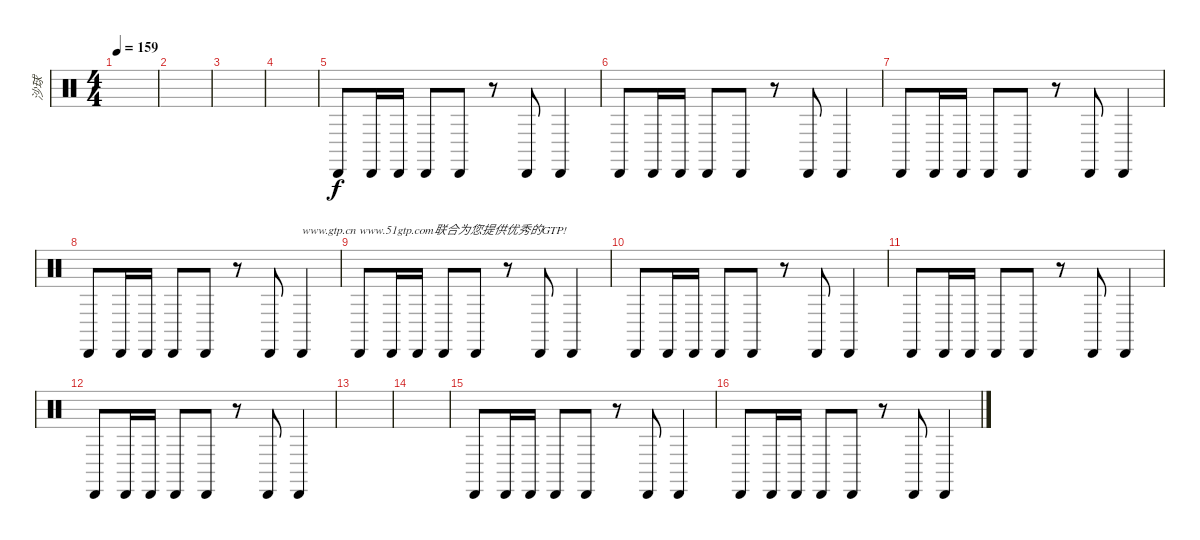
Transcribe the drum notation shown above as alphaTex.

\track ("沙球" "沙球") {instrument percussion}
\staff {score}
\articulation defaults
\ts (4 4)
\tempo 159
\clef neutral
\ks c
|
|
|
|
"Cabasa (hit)".8 "Cabasa (hit)".16 "Cabasa (hit)".16 "Cabasa (hit)".8 "Cabasa (hit)".8 r.8 "Cabasa (hit)".8 "Cabasa (hit)".4 |
"Cabasa (hit)".8 "Cabasa (hit)".16 "Cabasa (hit)".16 "Cabasa (hit)".8 "Cabasa (hit)".8 r.8 "Cabasa (hit)".8 "Cabasa (hit)".4 |
"Cabasa (hit)".8 "Cabasa (hit)".16 "Cabasa (hit)".16 "Cabasa (hit)".8 "Cabasa (hit)".8 r.8 "Cabasa (hit)".8 "Cabasa (hit)".4 |
"Cabasa (hit)".8 "Cabasa (hit)".16 "Cabasa (hit)".16 "Cabasa (hit)".8 "Cabasa (hit)".8 r.8 "Cabasa (hit)".8 "Cabasa (hit)".4{txt "www.gtp.cn www.51gtp.com联合为您提供优秀的GTP!"} |
"Cabasa (hit)".8 "Cabasa (hit)".16 "Cabasa (hit)".16 "Cabasa (hit)".8 "Cabasa (hit)".8 r.8 "Cabasa (hit)".8 "Cabasa (hit)".4 |
"Cabasa (hit)".8 "Cabasa (hit)".16 "Cabasa (hit)".16 "Cabasa (hit)".8 "Cabasa (hit)".8 r.8 "Cabasa (hit)".8 "Cabasa (hit)".4 |
"Cabasa (hit)".8 "Cabasa (hit)".16 "Cabasa (hit)".16 "Cabasa (hit)".8 "Cabasa (hit)".8 r.8 "Cabasa (hit)".8 "Cabasa (hit)".4 |
"Cabasa (hit)".8 "Cabasa (hit)".16 "Cabasa (hit)".16 "Cabasa (hit)".8 "Cabasa (hit)".8 r.8 "Cabasa (hit)".8 "Cabasa (hit)".4 |
|
|
"Cabasa (hit)".8 "Cabasa (hit)".16 "Cabasa (hit)".16 "Cabasa (hit)".8 "Cabasa (hit)".8 r.8 "Cabasa (hit)".8 "Cabasa (hit)".4 |
"Cabasa (hit)".8 "Cabasa (hit)".16 "Cabasa (hit)".16 "Cabasa (hit)".8 "Cabasa (hit)".8 r.8 "Cabasa (hit)".8 "Cabasa (hit)".4
